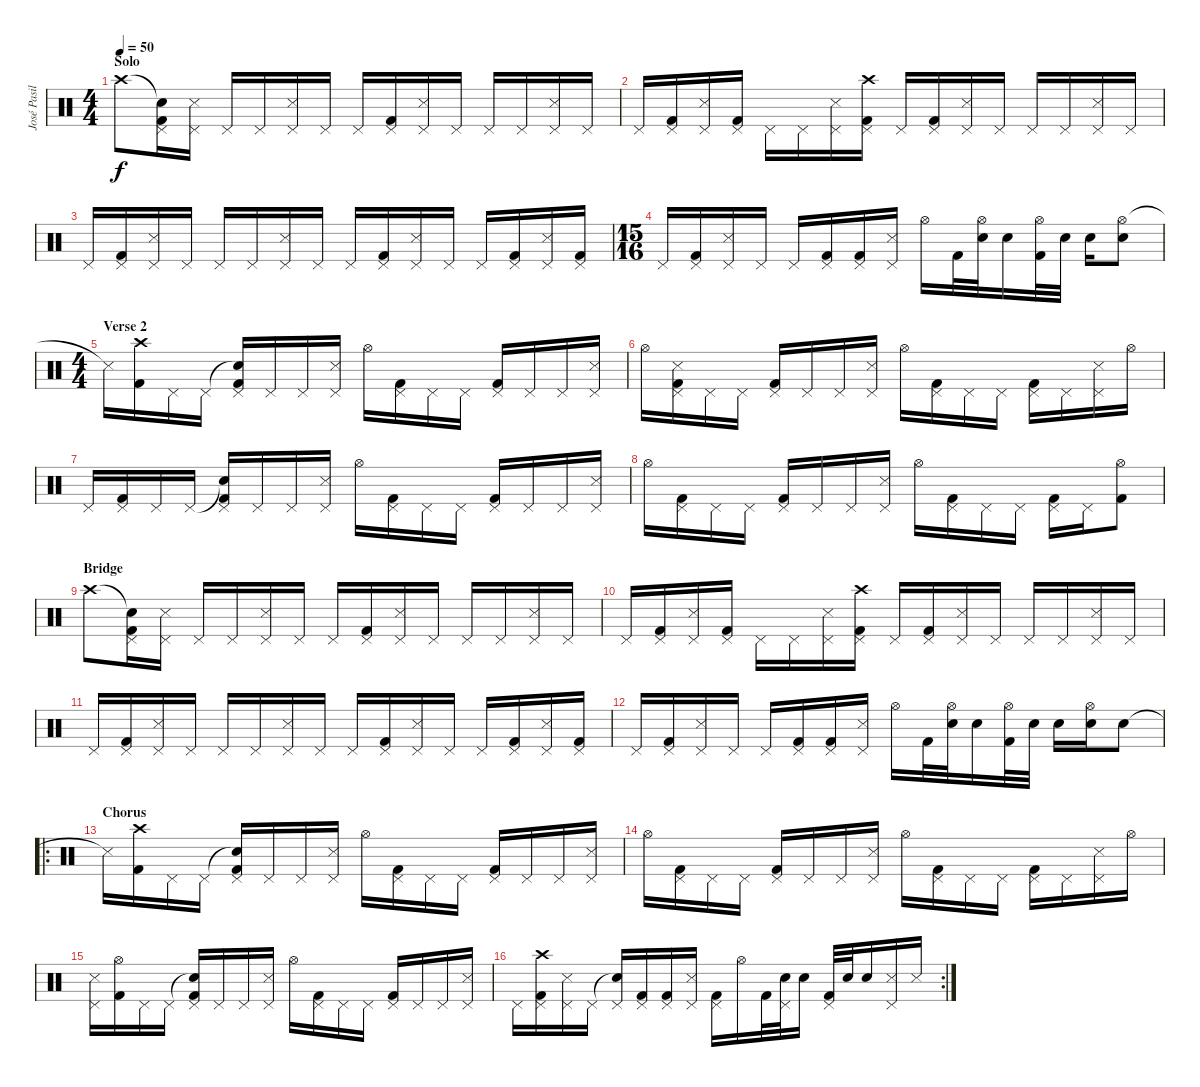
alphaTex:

\track ("José Pasillas" "José Pasil") {instrument percussion}
\staff {score}
\articulation defaults
\ts (4 4)
\section ("" "Solo")
\tempo 50
\clef neutral
\ks c "Crash high (hit)".8{dy f}
("Snare (hit)"{t} "Pedal Hi-Hat (hit)" "Kick (hit) 2").16 ("Pedal Hi-Hat (hit)" "Snare (side stick) 3").16 "Pedal Hi-Hat (hit)".16 "Pedal Hi-Hat (hit)".16 ("Pedal Hi-Hat (hit)" "Snare (side stick) 3").16 "Pedal Hi-Hat (hit)".16 "Pedal Hi-Hat (hit)".16 ("Pedal Hi-Hat (hit)" "Kick (hit) 2").16 ("Pedal Hi-Hat (hit)" "Snare (side stick) 3").16 "Pedal Hi-Hat (hit)".16 "Pedal Hi-Hat (hit)".16 "Pedal Hi-Hat (hit)".16 ("Pedal Hi-Hat (hit)" "Snare (side stick) 3").16 "Pedal Hi-Hat (hit)".16 |
"Pedal Hi-Hat (hit)".16 ("Pedal Hi-Hat (hit)" "Kick (hit) 2").16 ("Pedal Hi-Hat (hit)" "Snare (side stick) 3").16 ("Pedal Hi-Hat (hit)" "Kick (hit) 2").16 "Pedal Hi-Hat (hit)".16 "Pedal Hi-Hat (hit)".16 ("Pedal Hi-Hat (hit)" "Snare (side stick) 3").16 ("Crash high (hit)" "Pedal Hi-Hat (hit)" "Kick (hit) 2").16 "Pedal Hi-Hat (hit)".16 ("Pedal Hi-Hat (hit)" "Kick (hit) 2").16 ("Pedal Hi-Hat (hit)" "Snare (side stick) 3").16 "Pedal Hi-Hat (hit)".16 "Pedal Hi-Hat (hit)".16 "Pedal Hi-Hat (hit)".16 ("Pedal Hi-Hat (hit)" "Snare (side stick) 3").16 "Pedal Hi-Hat (hit)".16 |
"Pedal Hi-Hat (hit)".16 ("Pedal Hi-Hat (hit)" "Kick (hit) 2").16 ("Pedal Hi-Hat (hit)" "Snare (side stick) 3").16 "Pedal Hi-Hat (hit)".16 "Pedal Hi-Hat (hit)".16 "Pedal Hi-Hat (hit)".16 ("Pedal Hi-Hat (hit)" "Snare (side stick) 3").16 "Pedal Hi-Hat (hit)".16 "Pedal Hi-Hat (hit)".16 ("Pedal Hi-Hat (hit)" "Kick (hit) 2").16 ("Pedal Hi-Hat (hit)" "Snare (side stick) 3").16 "Pedal Hi-Hat (hit)".16 "Pedal Hi-Hat (hit)".16 ("Pedal Hi-Hat (hit)" "Kick (hit) 2").16 ("Pedal Hi-Hat (hit)" "Snare (side stick) 3").16 ("Pedal Hi-Hat (hit)" "Kick (hit) 2").16 |
\ts (15 16)
"Pedal Hi-Hat (hit)".16 ("Pedal Hi-Hat (hit)" "Kick (hit) 2").16 ("Pedal Hi-Hat (hit)" "Snare (side stick) 3").16 "Pedal Hi-Hat (hit)".16 "Pedal Hi-Hat (hit)".16 ("Pedal Hi-Hat (hit)" "Kick (hit) 2").16 ("Pedal Hi-Hat (hit)" "Kick (hit) 2").16 ("Pedal Hi-Hat (hit)" "Snare (side stick) 3").16 "Hi-Hat (open)".16 "Kick (hit) 2".32 ("Hi-Hat (open)" "Snare (hit) 2").32 "Snare (hit) 2".16 ("Hi-Hat (open)" "Kick (hit) 2").32 "Snare (hit) 2".32 "Snare (hit) 2".16 ("Hi-Hat (open)" "Snare (hit) 2").8 |
\ts (4 4)
\section ("" "Verse 2")
"Snare (side stick) 3"{t}.16 ("Crash high (hit)" "Kick (hit) 2").16 "Pedal Hi-Hat (hit)".16 "Pedal Hi-Hat (hit)".16 ("Snare (hit)"{t} "Pedal Hi-Hat (hit)" "Kick (hit) 2").16 "Pedal Hi-Hat (hit)".16 "Pedal Hi-Hat (hit)".16 ("Pedal Hi-Hat (hit)" "Snare (side stick) 3").16 "Hi-Hat (open)".16 ("Pedal Hi-Hat (hit)" "Kick (hit) 2").16 "Pedal Hi-Hat (hit)".16 "Pedal Hi-Hat (hit)".16 ("Pedal Hi-Hat (hit)" "Kick (hit) 2").16 "Pedal Hi-Hat (hit)".16 "Pedal Hi-Hat (hit)".16 ("Pedal Hi-Hat (hit)" "Snare (side stick) 3").16 |
"Hi-Hat (open)".16 ("Pedal Hi-Hat (hit)" "Snare (side stick) 3" "Kick (hit) 2").16 "Pedal Hi-Hat (hit)".16 "Pedal Hi-Hat (hit)".16 ("Pedal Hi-Hat (hit)" "Kick (hit) 2").16 "Pedal Hi-Hat (hit)".16 "Pedal Hi-Hat (hit)".16 ("Pedal Hi-Hat (hit)" "Snare (side stick) 3").16 "Hi-Hat (open)".16 ("Pedal Hi-Hat (hit)" "Kick (hit) 2").16 "Pedal Hi-Hat (hit)".16 "Pedal Hi-Hat (hit)".16 ("Pedal Hi-Hat (hit)" "Kick (hit) 2").16 "Pedal Hi-Hat (hit)".16 ("Pedal Hi-Hat (hit)" "Snare (side stick) 3").16 "Hi-Hat (open)".16 |
"Pedal Hi-Hat (hit)".16 ("Pedal Hi-Hat (hit)" "Kick (hit) 2").16 "Pedal Hi-Hat (hit)".16 "Pedal Hi-Hat (hit)".16 ("Snare (hit)"{t} "Pedal Hi-Hat (hit)" "Kick (hit) 2").16 "Pedal Hi-Hat (hit)".16 "Pedal Hi-Hat (hit)".16 ("Pedal Hi-Hat (hit)" "Snare (side stick) 3").16 "Hi-Hat (open)".16 ("Pedal Hi-Hat (hit)" "Kick (hit) 2").16 "Pedal Hi-Hat (hit)".16 "Pedal Hi-Hat (hit)".16 ("Pedal Hi-Hat (hit)" "Kick (hit) 2").16 "Pedal Hi-Hat (hit)".16 "Pedal Hi-Hat (hit)".16 ("Pedal Hi-Hat (hit)" "Snare (side stick) 3").16 |
"Hi-Hat (open)".16 ("Pedal Hi-Hat (hit)" "Kick (hit) 2").16 "Pedal Hi-Hat (hit)".16 "Pedal Hi-Hat (hit)".16 ("Pedal Hi-Hat (hit)" "Kick (hit) 2").16 "Pedal Hi-Hat (hit)".16 "Pedal Hi-Hat (hit)".16 ("Pedal Hi-Hat (hit)" "Snare (side stick) 3").16 "Hi-Hat (open)".16 ("Pedal Hi-Hat (hit)" "Kick (hit) 2").16 "Pedal Hi-Hat (hit)".16 "Pedal Hi-Hat (hit)".16 ("Pedal Hi-Hat (hit)" "Kick (hit) 2").16 "Pedal Hi-Hat (hit)".16 ("Hi-Hat (open)" "Kick (hit) 2").8 |
\section ("" "Bridge")
"Crash high (hit)".8 ("Snare (hit)"{t} "Pedal Hi-Hat (hit)" "Kick (hit) 2").16 ("Pedal Hi-Hat (hit)" "Snare (side stick) 3").16 "Pedal Hi-Hat (hit)".16 "Pedal Hi-Hat (hit)".16 ("Pedal Hi-Hat (hit)" "Snare (side stick) 3").16 "Pedal Hi-Hat (hit)".16 "Pedal Hi-Hat (hit)".16 ("Pedal Hi-Hat (hit)" "Kick (hit) 2").16 ("Pedal Hi-Hat (hit)" "Snare (side stick) 3").16 "Pedal Hi-Hat (hit)".16 "Pedal Hi-Hat (hit)".16 "Pedal Hi-Hat (hit)".16 ("Pedal Hi-Hat (hit)" "Snare (side stick) 3").16 "Pedal Hi-Hat (hit)".16 |
"Pedal Hi-Hat (hit)".16 ("Pedal Hi-Hat (hit)" "Kick (hit) 2").16 ("Pedal Hi-Hat (hit)" "Snare (side stick) 3").16 ("Pedal Hi-Hat (hit)" "Kick (hit) 2").16 "Pedal Hi-Hat (hit)".16 "Pedal Hi-Hat (hit)".16 ("Pedal Hi-Hat (hit)" "Snare (side stick) 3").16 ("Crash high (hit)" "Pedal Hi-Hat (hit)" "Kick (hit) 2").16 "Pedal Hi-Hat (hit)".16 ("Pedal Hi-Hat (hit)" "Kick (hit) 2").16 ("Pedal Hi-Hat (hit)" "Snare (side stick) 3").16 "Pedal Hi-Hat (hit)".16 "Pedal Hi-Hat (hit)".16 "Pedal Hi-Hat (hit)".16 ("Pedal Hi-Hat (hit)" "Snare (side stick) 3").16 "Pedal Hi-Hat (hit)".16 |
"Pedal Hi-Hat (hit)".16 ("Pedal Hi-Hat (hit)" "Kick (hit) 2").16 ("Pedal Hi-Hat (hit)" "Snare (side stick) 3").16 "Pedal Hi-Hat (hit)".16 "Pedal Hi-Hat (hit)".16 "Pedal Hi-Hat (hit)".16 ("Pedal Hi-Hat (hit)" "Snare (side stick) 3").16 "Pedal Hi-Hat (hit)".16 "Pedal Hi-Hat (hit)".16 ("Pedal Hi-Hat (hit)" "Kick (hit) 2").16 ("Pedal Hi-Hat (hit)" "Snare (side stick) 3").16 "Pedal Hi-Hat (hit)".16 "Pedal Hi-Hat (hit)".16 ("Pedal Hi-Hat (hit)" "Kick (hit) 2").16 ("Pedal Hi-Hat (hit)" "Snare (side stick) 3").16 ("Pedal Hi-Hat (hit)" "Kick (hit) 2").16 |
"Pedal Hi-Hat (hit)".16 ("Pedal Hi-Hat (hit)" "Kick (hit) 2").16 ("Pedal Hi-Hat (hit)" "Snare (side stick) 3").16 "Pedal Hi-Hat (hit)".16 "Pedal Hi-Hat (hit)".16 ("Pedal Hi-Hat (hit)" "Kick (hit) 2").16 ("Pedal Hi-Hat (hit)" "Kick (hit) 2").16 ("Pedal Hi-Hat (hit)" "Snare (side stick) 3").16 "Hi-Hat (open)".16 "Kick (hit) 2".32 ("Hi-Hat (open)" "Snare (hit) 2").32 "Snare (hit) 2".16 ("Hi-Hat (open)" "Kick (hit) 2").32 "Snare (hit) 2".32 "Snare (hit) 2".16 ("Hi-Hat (open)" "Snare (hit) 2").16 "Snare (hit) 2".8 |
\ro
\section ("" "Chorus")
"Snare (side stick) 3"{t}.16 ("Crash high (hit)" "Kick (hit) 2").16 "Pedal Hi-Hat (hit)".16 "Pedal Hi-Hat (hit)".16 ("Snare (hit)"{t} "Pedal Hi-Hat (hit)" "Kick (hit) 2").16 "Pedal Hi-Hat (hit)".16 "Pedal Hi-Hat (hit)".16 ("Pedal Hi-Hat (hit)" "Snare (side stick) 3").16 "Hi-Hat (open)".16 ("Pedal Hi-Hat (hit)" "Kick (hit) 2").16 "Pedal Hi-Hat (hit)".16 "Pedal Hi-Hat (hit)".16 ("Pedal Hi-Hat (hit)" "Kick (hit) 2").16 "Pedal Hi-Hat (hit)".16 "Pedal Hi-Hat (hit)".16 ("Pedal Hi-Hat (hit)" "Snare (side stick) 3").16 |
"Hi-Hat (open)".16 ("Pedal Hi-Hat (hit)" "Kick (hit) 2").16 "Pedal Hi-Hat (hit)".16 "Pedal Hi-Hat (hit)".16 ("Pedal Hi-Hat (hit)" "Kick (hit) 2").16 "Pedal Hi-Hat (hit)".16 "Pedal Hi-Hat (hit)".16 ("Pedal Hi-Hat (hit)" "Snare (side stick) 3").16 "Hi-Hat (open)".16 ("Pedal Hi-Hat (hit)" "Kick (hit) 2").16 "Pedal Hi-Hat (hit)".16 "Pedal Hi-Hat (hit)".16 ("Pedal Hi-Hat (hit)" "Kick (hit) 2").16 "Pedal Hi-Hat (hit)".16 ("Pedal Hi-Hat (hit)" "Snare (side stick) 3").16 "Hi-Hat (open)".16 |
("Pedal Hi-Hat (hit)" "Snare (side stick) 3").16 ("Hi-Hat (open)" "Kick (hit) 2").16 "Pedal Hi-Hat (hit)".16 "Pedal Hi-Hat (hit)".16 ("Snare (hit)"{t} "Pedal Hi-Hat (hit)" "Kick (hit) 2").16 "Pedal Hi-Hat (hit)".16 "Pedal Hi-Hat (hit)".16 ("Pedal Hi-Hat (hit)" "Snare (side stick) 3").16 "Hi-Hat (open)".16 ("Pedal Hi-Hat (hit)" "Kick (hit) 2").16 "Pedal Hi-Hat (hit)".16 "Pedal Hi-Hat (hit)".16 ("Pedal Hi-Hat (hit)" "Kick (hit) 2").16 "Pedal Hi-Hat (hit)".16 "Pedal Hi-Hat (hit)".16 ("Pedal Hi-Hat (hit)" "Snare (side stick) 3").16 |
\rc 2 "Pedal Hi-Hat (hit)".16
("Crash high (hit)" "Pedal Hi-Hat (hit)" "Kick (hit) 2").16 ("Pedal Hi-Hat (hit)" "Snare (side stick) 3").16 "Pedal Hi-Hat (hit)".16 ("Snare (hit)"{t} "Pedal Hi-Hat (hit)").16 ("Pedal Hi-Hat (hit)" "Kick (hit) 2").16 ("Pedal Hi-Hat (hit)" "Kick (hit) 2").16 ("Pedal Hi-Hat (hit)" "Snare (side stick) 3").16 ("Pedal Hi-Hat (hit)" "Kick (hit) 2").16 "Hi-Hat (open)".16 "Kick (hit) 2".32 ("Pedal Hi-Hat (hit)" "Snare (hit) 2").32 "Snare (hit) 2".16 ("Pedal Hi-Hat (hit)" "Kick (hit) 2").32 "Snare (hit) 2".32 "Snare (hit) 2".16 ("Pedal Hi-Hat (hit)" "Snare (side stick) 3").16 "Snare (side stick) 3".16
